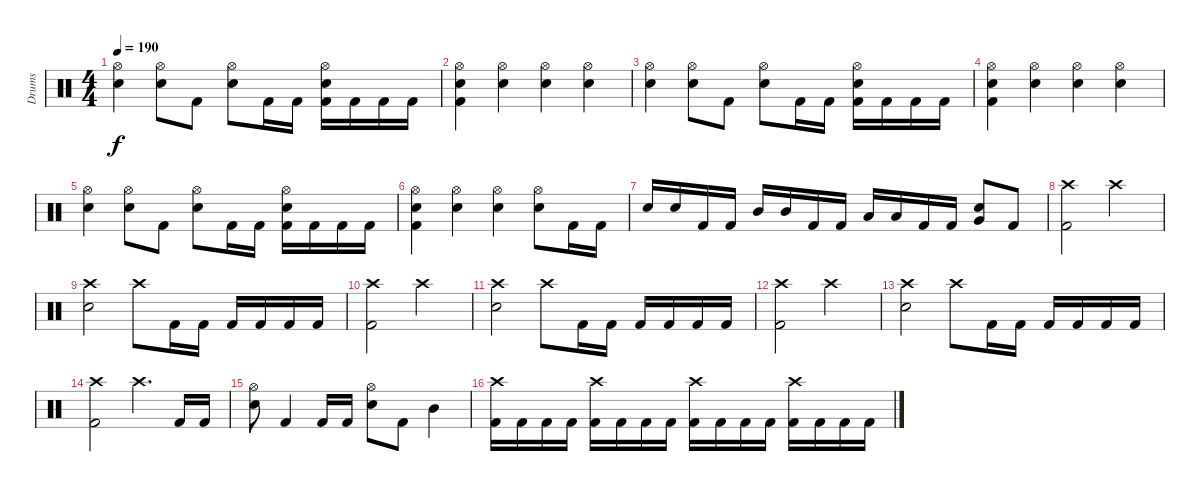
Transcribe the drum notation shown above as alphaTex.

\track ("Drums" "Drums") {instrument percussion}
\staff {score}
\articulation defaults
\ts (4 4)
\tempo 190
\clef neutral
\ks c
("Hi-Hat (open)" "Electric Snare (hit)").4{dy f} ("Hi-Hat (open)" "Electric Snare (hit)").8 "Kick (hit) 2".8 ("Hi-Hat (open)" "Electric Snare (hit)").8 "Kick (hit) 2".16 "Kick (hit) 2".16 ("Hi-Hat (open)" "Electric Snare (hit)" "Kick (hit) 2").16 "Kick (hit) 2".16 "Kick (hit) 2".16 "Kick (hit) 2".16 |
("Hi-Hat (open)" "Electric Snare (hit)" "Kick (hit) 2").4 ("Hi-Hat (open)" "Electric Snare (hit)").4 ("Hi-Hat (open)" "Electric Snare (hit)").4 ("Hi-Hat (open)" "Electric Snare (hit)").4 |
("Hi-Hat (open)" "Electric Snare (hit)").4 ("Hi-Hat (open)" "Electric Snare (hit)").8 "Kick (hit) 2".8 ("Hi-Hat (open)" "Electric Snare (hit)").8 "Kick (hit) 2".16 "Kick (hit) 2".16 ("Hi-Hat (open)" "Electric Snare (hit)" "Kick (hit) 2").16 "Kick (hit) 2".16 "Kick (hit) 2".16 "Kick (hit) 2".16 |
("Hi-Hat (open)" "Electric Snare (hit)" "Kick (hit) 2").4 ("Hi-Hat (open)" "Electric Snare (hit)").4 ("Hi-Hat (open)" "Electric Snare (hit)").4 ("Hi-Hat (open)" "Electric Snare (hit)").4 |
("Hi-Hat (open)" "Electric Snare (hit)").4 ("Hi-Hat (open)" "Electric Snare (hit)").8 "Kick (hit) 2".8 ("Hi-Hat (open)" "Electric Snare (hit)").8 "Kick (hit) 2".16 "Kick (hit) 2".16 ("Hi-Hat (open)" "Electric Snare (hit)" "Kick (hit) 2").16 "Kick (hit) 2".16 "Kick (hit) 2".16 "Kick (hit) 2".16 |
("Hi-Hat (open)" "Electric Snare (hit)" "Kick (hit) 2").4 ("Hi-Hat (open)" "Electric Snare (hit)").4 ("Hi-Hat (open)" "Electric Snare (hit)").4 ("Hi-Hat (open)" "Electric Snare (hit)").8 "Kick (hit) 2".16 "Kick (hit) 2".16 |
"Electric Snare (hit)".16 "Electric Snare (hit)".16 "Kick (hit) 2".16 "Kick (hit) 2".16 "Mid Tom (hit)".16 "Mid Tom (hit)".16 "Kick (hit) 2".16 "Kick (hit) 2".16 "Low Tom (hit)".16 "Low Tom (hit)".16 "Kick (hit) 2".16 "Kick (hit) 2".16 ("Very Low Tom (hit)" "Electric Snare (hit)").8 "Kick (hit) 2".8 |
("Crash high (hit)" "Kick (hit) 2").2 "Crash high (hit)".2 |
("Crash high (hit)" "Electric Snare (hit)").2 "Crash high (hit)".8 "Kick (hit) 2".16 "Kick (hit) 2".16 "Kick (hit) 2".16 "Kick (hit) 2".16 "Kick (hit) 2".16 "Kick (hit) 2".16 |
("Crash high (hit)" "Kick (hit) 2").2 "Crash high (hit)".2 |
("Crash high (hit)" "Electric Snare (hit)").2 "Crash high (hit)".8 "Kick (hit) 2".16 "Kick (hit) 2".16 "Kick (hit) 2".16 "Kick (hit) 2".16 "Kick (hit) 2".16 "Kick (hit) 2".16 |
("Crash high (hit)" "Kick (hit) 2").2 "Crash high (hit)".2 |
("Crash high (hit)" "Electric Snare (hit)").2 "Crash high (hit)".8 "Kick (hit) 2".16 "Kick (hit) 2".16 "Kick (hit) 2".16 "Kick (hit) 2".16 "Kick (hit) 2".16 "Kick (hit) 2".16 |
("Crash high (hit)" "Kick (hit) 2").2 "Crash high (hit)".4{d} "Kick (hit) 2".16 "Kick (hit) 2".16 |
("Hi-Hat (open)" "Electric Snare (hit)").8 "Kick (hit) 2".4 "Kick (hit) 2".16 "Kick (hit) 2".16 ("Hi-Hat (open)" "Electric Snare (hit)").8 "Kick (hit) 2".8 "Mid Tom (hit)".4 |
("Crash high (hit)" "Kick (hit) 2").16 "Kick (hit) 2".16 "Kick (hit) 2".16 "Kick (hit) 2".16 ("Crash high (hit)" "Kick (hit) 2").16 "Kick (hit) 2".16 "Kick (hit) 2".16 "Kick (hit) 2".16 ("Crash high (hit)" "Kick (hit) 2").16 "Kick (hit) 2".16 "Kick (hit) 2".16 "Kick (hit) 2".16 ("Crash high (hit)" "Kick (hit) 2").16 "Kick (hit) 2".16 "Kick (hit) 2".16 "Kick (hit) 2".16
